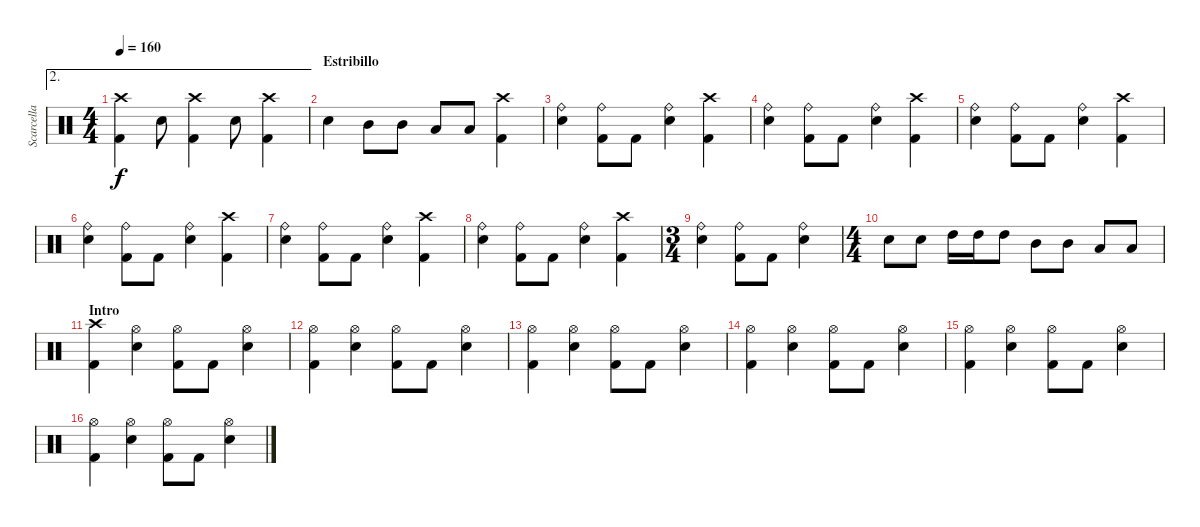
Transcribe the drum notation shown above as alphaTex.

\track ("Scarcella" "Scarcella") {instrument percussion}
\staff {score}
\articulation defaults
\ae 2
\ts (4 4)
\tempo 160
\clef neutral
\ks c
("Crash high (hit)" "Kick (hit) 2").4{dy f} "Snare (hit) 2".8 ("Crash high (hit)" "Kick (hit) 2").4 "Snare (hit) 2".8 ("Crash high (hit)" "Kick (hit) 2").4 |
\section ("" "Estribillo")
"Snare (hit) 2".4 "Mid Tom (hit)".8 "Mid Tom (hit)".8 "Low Tom (hit)".8 "Low Tom (hit)".8 ("Crash high (hit)" "Kick (hit) 2").4 |
("Ride (bell)" "Snare (hit) 2").4 ("Ride (bell)" "Kick (hit) 2").8 "Kick (hit) 2".8 ("Ride (bell)" "Snare (hit) 2").4 ("Crash high (hit)" "Kick (hit) 2").4 |
("Ride (bell)" "Snare (hit) 2").4 ("Ride (bell)" "Kick (hit) 2").8 "Kick (hit) 2".8 ("Ride (bell)" "Snare (hit) 2").4 ("Crash high (hit)" "Kick (hit) 2").4 |
("Ride (bell)" "Snare (hit) 2").4 ("Ride (bell)" "Kick (hit) 2").8 "Kick (hit) 2".8 ("Ride (bell)" "Snare (hit) 2").4 ("Crash high (hit)" "Kick (hit) 2").4 |
("Ride (bell)" "Snare (hit) 2").4 ("Ride (bell)" "Kick (hit) 2").8 "Kick (hit) 2".8 ("Ride (bell)" "Snare (hit) 2").4 ("Crash high (hit)" "Kick (hit) 2").4 |
("Ride (bell)" "Snare (hit) 2").4 ("Ride (bell)" "Kick (hit) 2").8 "Kick (hit) 2".8 ("Ride (bell)" "Snare (hit) 2").4 ("Crash high (hit)" "Kick (hit) 2").4 |
("Ride (bell)" "Snare (hit) 2").4 ("Ride (bell)" "Kick (hit) 2").8 "Kick (hit) 2".8 ("Ride (bell)" "Snare (hit) 2").4 ("Crash high (hit)" "Kick (hit) 2").4 |
\ts (3 4)
("Ride (bell)" "Snare (hit) 2").4 ("Ride (bell)" "Kick (hit) 2").8 "Kick (hit) 2".8 ("Ride (bell)" "Snare (hit) 2").4 |
\ts (4 4)
"Snare (hit) 2".8 "Snare (hit) 2".8 "High Tom (hit)".16 "High Tom (hit)".16 "High Tom (hit)".8 "Mid Tom (hit)".8 "Mid Tom (hit)".8 "Low Tom (hit)".8 "Low Tom (hit)".8 |
\section ("" "Intro")
("Crash high (hit)" "Kick (hit) 2").4 ("Hi-Hat (open)" "Snare (hit) 2").4 ("Hi-Hat (open)" "Kick (hit) 2").8 "Kick (hit) 2".8 ("Hi-Hat (open)" "Snare (hit) 2").4 |
("Hi-Hat (open)" "Kick (hit) 2").4 ("Hi-Hat (open)" "Snare (hit) 2").4 ("Hi-Hat (open)" "Kick (hit) 2").8 "Kick (hit) 2".8 ("Hi-Hat (open)" "Snare (hit) 2").4 |
("Hi-Hat (open)" "Kick (hit) 2").4 ("Hi-Hat (open)" "Snare (hit) 2").4 ("Hi-Hat (open)" "Kick (hit) 2").8 "Kick (hit) 2".8 ("Hi-Hat (open)" "Snare (hit) 2").4 |
("Hi-Hat (open)" "Kick (hit) 2").4 ("Hi-Hat (open)" "Snare (hit) 2").4 ("Hi-Hat (open)" "Kick (hit) 2").8 "Kick (hit) 2".8 ("Hi-Hat (open)" "Snare (hit) 2").4 |
("Hi-Hat (open)" "Kick (hit) 2").4 ("Hi-Hat (open)" "Snare (hit) 2").4 ("Hi-Hat (open)" "Kick (hit) 2").8 "Kick (hit) 2".8 ("Hi-Hat (open)" "Snare (hit) 2").4 |
("Hi-Hat (open)" "Kick (hit) 2").4 ("Hi-Hat (open)" "Snare (hit) 2").4 ("Hi-Hat (open)" "Kick (hit) 2").8 "Kick (hit) 2".8 ("Hi-Hat (open)" "Snare (hit) 2").4
